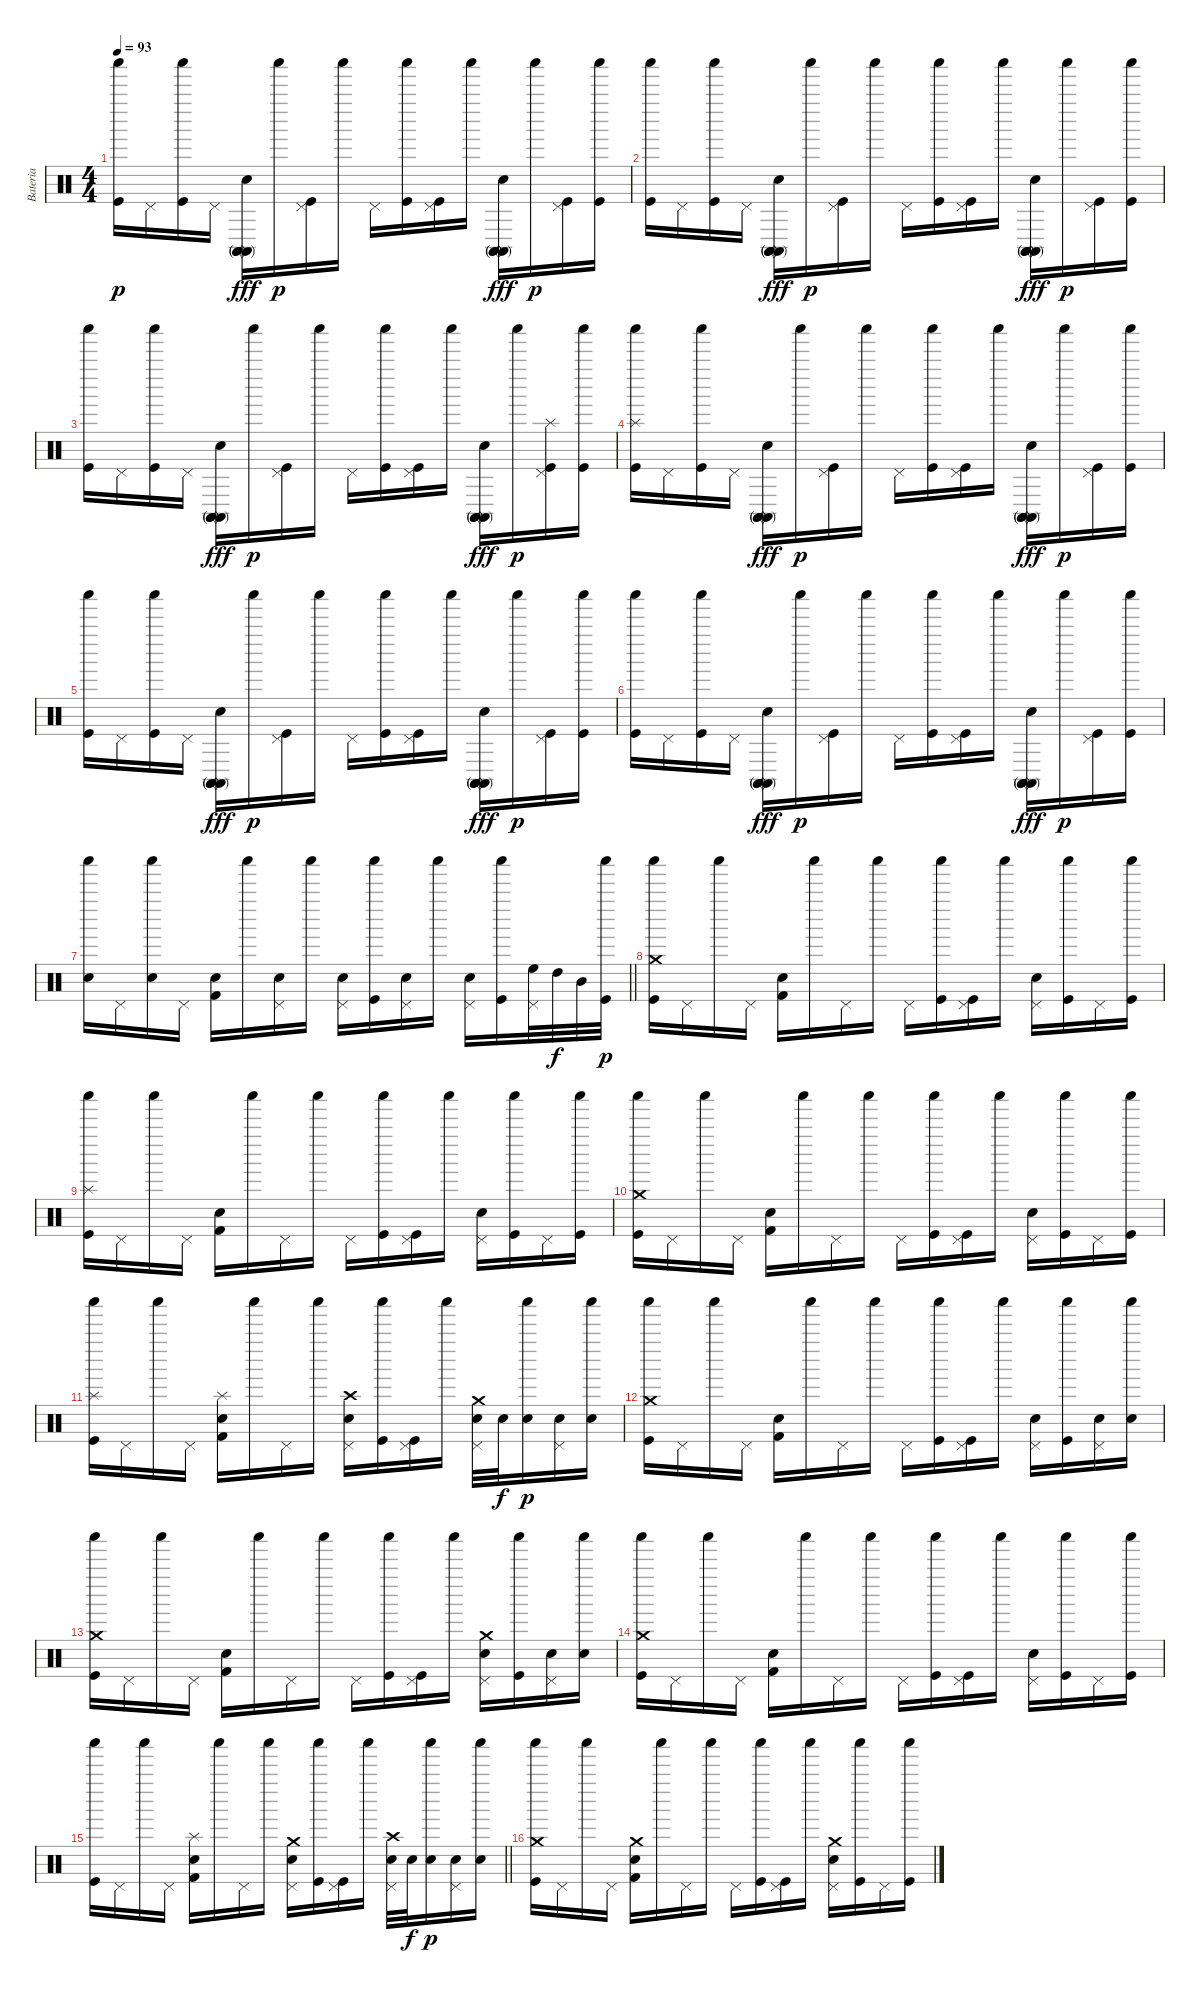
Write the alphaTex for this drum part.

\track ("Bateria" "Bateria") {instrument percussion}
\staff {score}
\articulation defaults
\ts (4 4)
\tempo 93
\clef neutral
\ks c
("Kick (hit)" "Shaker (hit)").16{dy p volume 13} "Pedal Hi-Hat (hit)".16 ("Kick (hit)" "Shaker (hit)").16 "Pedal Hi-Hat (hit)".16 ("Electric Snare (hit)" "Conga high (mute)" "Conga high (mute)" "Conga high (mute)").16{dy fff} "Shaker (hit)".16{dy p} ("Kick (hit)" "Pedal Hi-Hat (hit)").16 "Shaker (hit)".16 "Pedal Hi-Hat (hit)".16 ("Kick (hit)" "Shaker (hit)").16 ("Kick (hit)" "Pedal Hi-Hat (hit)").16 "Shaker (hit)".16 ("Electric Snare (hit)" "Conga high (mute)" "Conga high (mute)" "Conga high (mute)").16{dy fff} "Shaker (hit)".16{dy p} ("Kick (hit)" "Pedal Hi-Hat (hit)").16 ("Kick (hit)" "Shaker (hit)").16 |
("Kick (hit)" "Shaker (hit)").16{volume 13} "Pedal Hi-Hat (hit)".16 ("Kick (hit)" "Shaker (hit)").16 "Pedal Hi-Hat (hit)".16 ("Electric Snare (hit)" "Conga high (mute)" "Conga high (mute)" "Conga high (mute)").16{dy fff} "Shaker (hit)".16{dy p} ("Kick (hit)" "Pedal Hi-Hat (hit)").16 "Shaker (hit)".16 "Pedal Hi-Hat (hit)".16 ("Kick (hit)" "Shaker (hit)").16 ("Kick (hit)" "Pedal Hi-Hat (hit)").16 "Shaker (hit)".16 ("Electric Snare (hit)" "Conga high (mute)" "Conga high (mute)" "Conga high (mute)").16{dy fff} "Shaker (hit)".16{dy p} ("Kick (hit)" "Pedal Hi-Hat (hit)").16 ("Kick (hit)" "Shaker (hit)").16 |
("Kick (hit)" "Shaker (hit)").16{volume 13} "Pedal Hi-Hat (hit)".16 ("Kick (hit)" "Shaker (hit)").16 "Pedal Hi-Hat (hit)".16 ("Electric Snare (hit)" "Conga high (mute)" "Conga high (mute)" "Conga high (mute)").16{dy fff} "Shaker (hit)".16{dy p} ("Kick (hit)" "Pedal Hi-Hat (hit)").16 "Shaker (hit)".16 "Pedal Hi-Hat (hit)".16 ("Kick (hit)" "Shaker (hit)").16 ("Kick (hit)" "Pedal Hi-Hat (hit)").16 "Shaker (hit)".16 ("Electric Snare (hit)" "Conga high (mute)" "Conga high (mute)" "Conga high (mute)").16{dy fff} "Shaker (hit)".16{dy p} ("Kick (hit)" "Pedal Hi-Hat (hit)" "Splash (hit)").16 ("Kick (hit)" "Shaker (hit)").16 |
("Kick (hit)" "Shaker (hit)" "Splash (hit)").16{volume 13} "Pedal Hi-Hat (hit)".16 ("Kick (hit)" "Shaker (hit)").16 "Pedal Hi-Hat (hit)".16 ("Electric Snare (hit)" "Conga high (mute)" "Conga high (mute)" "Conga high (mute)").16{dy fff} "Shaker (hit)".16{dy p} ("Kick (hit)" "Pedal Hi-Hat (hit)").16 "Shaker (hit)".16 "Pedal Hi-Hat (hit)".16 ("Kick (hit)" "Shaker (hit)").16 ("Kick (hit)" "Pedal Hi-Hat (hit)").16 "Shaker (hit)".16 ("Electric Snare (hit)" "Conga high (mute)" "Conga high (mute)" "Conga high (mute)").16{dy fff} "Shaker (hit)".16{dy p} ("Kick (hit)" "Pedal Hi-Hat (hit)").16 ("Kick (hit)" "Shaker (hit)").16 |
("Kick (hit)" "Shaker (hit)").16{volume 13} "Pedal Hi-Hat (hit)".16 ("Kick (hit)" "Shaker (hit)").16 "Pedal Hi-Hat (hit)".16 ("Electric Snare (hit)" "Conga high (mute)" "Conga high (mute)" "Conga high (mute)").16{dy fff} "Shaker (hit)".16{dy p} ("Kick (hit)" "Pedal Hi-Hat (hit)").16 "Shaker (hit)".16 "Pedal Hi-Hat (hit)".16 ("Kick (hit)" "Shaker (hit)").16 ("Kick (hit)" "Pedal Hi-Hat (hit)").16 "Shaker (hit)".16 ("Electric Snare (hit)" "Conga high (mute)" "Conga high (mute)" "Conga high (mute)").16{dy fff} "Shaker (hit)".16{dy p} ("Kick (hit)" "Pedal Hi-Hat (hit)").16 ("Kick (hit)" "Shaker (hit)").16 |
("Kick (hit)" "Shaker (hit)").16{volume 13} "Pedal Hi-Hat (hit)".16 ("Kick (hit)" "Shaker (hit)").16 "Pedal Hi-Hat (hit)".16 ("Electric Snare (hit)" "Conga high (mute)" "Conga high (mute)" "Conga high (mute)").16{dy fff} "Shaker (hit)".16{dy p} ("Kick (hit)" "Pedal Hi-Hat (hit)").16 "Shaker (hit)".16 "Pedal Hi-Hat (hit)".16 ("Kick (hit)" "Shaker (hit)").16 ("Kick (hit)" "Pedal Hi-Hat (hit)").16 "Shaker (hit)".16 ("Electric Snare (hit)" "Conga high (mute)" "Conga high (mute)" "Conga high (mute)").16{dy fff} "Shaker (hit)".16{dy p} ("Kick (hit)" "Pedal Hi-Hat (hit)").16 ("Kick (hit)" "Shaker (hit)").16 |
\barLineRight lightlight
("Electric Snare (hit)" "Shaker (hit)").16 "Pedal Hi-Hat (hit)".16 ("Electric Snare (hit)" "Shaker (hit)").16 "Pedal Hi-Hat (hit)".16 ("Electric Snare (hit)" "Kick (hit) 2").16 "Shaker (hit)".16 ("Electric Snare (hit)" "Pedal Hi-Hat (hit)").16 "Shaker (hit)".16 ("Electric Snare (hit)" "Pedal Hi-Hat (hit)").16 ("Kick (hit)" "Shaker (hit)").16 ("Electric Snare (hit)" "Pedal Hi-Hat (hit)").16 "Shaker (hit)".16 ("Electric Snare (hit)" "Pedal Hi-Hat (hit)").16 ("Kick (hit)" "Shaker (hit)").16 ("High Floor Tom (hit)" "Pedal Hi-Hat (hit)").32 "High Tom (hit)".32{dy f} "Mid Tom (hit)".32 ("Kick (hit)" "Shaker (hit)").32{dy p} |
("Kick (hit)" "Shaker (hit)" "Crash medium (hit)").16 "Pedal Hi-Hat (hit)".16 "Shaker (hit)".16 "Pedal Hi-Hat (hit)".16 ("Electric Snare (hit)" "Kick (hit) 2").16 "Shaker (hit)".16 "Pedal Hi-Hat (hit)".16 "Shaker (hit)".16 "Pedal Hi-Hat (hit)".16 ("Kick (hit)" "Shaker (hit)").16 ("Kick (hit)" "Pedal Hi-Hat (hit)").16 "Shaker (hit)".16 ("Electric Snare (hit)" "Pedal Hi-Hat (hit)").16 ("Kick (hit)" "Shaker (hit)").16 "Pedal Hi-Hat (hit)".16 ("Kick (hit)" "Shaker (hit)").16 |
("Kick (hit)" "Shaker (hit)" "Splash (hit)").16 "Pedal Hi-Hat (hit)".16 "Shaker (hit)".16 "Pedal Hi-Hat (hit)".16 ("Electric Snare (hit)" "Kick (hit) 2").16 "Shaker (hit)".16 "Pedal Hi-Hat (hit)".16 "Shaker (hit)".16 "Pedal Hi-Hat (hit)".16 ("Kick (hit)" "Shaker (hit)").16 ("Kick (hit)" "Pedal Hi-Hat (hit)").16 "Shaker (hit)".16 ("Electric Snare (hit)" "Pedal Hi-Hat (hit)").16 ("Kick (hit)" "Shaker (hit)").16 "Pedal Hi-Hat (hit)".16 ("Kick (hit)" "Shaker (hit)").16 |
("Kick (hit)" "Shaker (hit)" "Crash medium (hit)").16 "Pedal Hi-Hat (hit)".16 "Shaker (hit)".16 "Pedal Hi-Hat (hit)".16 ("Electric Snare (hit)" "Kick (hit) 2").16 "Shaker (hit)".16 "Pedal Hi-Hat (hit)".16 "Shaker (hit)".16 "Pedal Hi-Hat (hit)".16 ("Kick (hit)" "Shaker (hit)").16 ("Kick (hit)" "Pedal Hi-Hat (hit)").16 "Shaker (hit)".16 ("Electric Snare (hit)" "Pedal Hi-Hat (hit)").16 ("Kick (hit)" "Shaker (hit)").16 "Pedal Hi-Hat (hit)".16 ("Kick (hit)" "Shaker (hit)").16 |
("Kick (hit)" "Shaker (hit)" "Splash (hit)").16 "Pedal Hi-Hat (hit)".16 "Shaker (hit)".16 "Pedal Hi-Hat (hit)".16 ("Electric Snare (hit)" "Kick (hit) 2" "Splash (hit)").16 "Shaker (hit)".16 "Pedal Hi-Hat (hit)".16 "Shaker (hit)".16 ("Electric Snare (hit)" "Pedal Hi-Hat (hit)" "Crash high (hit)").16 ("Kick (hit)" "Shaker (hit)").16 ("Kick (hit)" "Pedal Hi-Hat (hit)").16 "Shaker (hit)".16 ("Electric Snare (hit)" "Pedal Hi-Hat (hit)" "Crash medium (hit)").32 "Electric Snare (hit)".32{dy f} ("Electric Snare (hit)" "Shaker (hit)").16{dy p} ("Electric Snare (hit)" "Pedal Hi-Hat (hit)").16 ("Electric Snare (hit)" "Shaker (hit)").16 |
("Kick (hit)" "Shaker (hit)" "Crash medium (hit)").16 "Pedal Hi-Hat (hit)".16 "Shaker (hit)".16 "Pedal Hi-Hat (hit)".16 ("Electric Snare (hit)" "Kick (hit) 2").16 "Shaker (hit)".16 "Pedal Hi-Hat (hit)".16 "Shaker (hit)".16 "Pedal Hi-Hat (hit)".16 ("Kick (hit)" "Shaker (hit)").16 ("Kick (hit)" "Pedal Hi-Hat (hit)").16 "Shaker (hit)".16 ("Electric Snare (hit)" "Pedal Hi-Hat (hit)").16 ("Kick (hit)" "Shaker (hit)").16 ("Electric Snare (hit)" "Pedal Hi-Hat (hit)").16 ("Electric Snare (hit)" "Shaker (hit)").16 |
("Kick (hit)" "Shaker (hit)" "Crash medium (hit)").16 "Pedal Hi-Hat (hit)".16 "Shaker (hit)".16 "Pedal Hi-Hat (hit)".16 ("Electric Snare (hit)" "Kick (hit) 2").16 "Shaker (hit)".16 "Pedal Hi-Hat (hit)".16 "Shaker (hit)".16 "Pedal Hi-Hat (hit)".16 ("Kick (hit)" "Shaker (hit)").16 ("Kick (hit)" "Pedal Hi-Hat (hit)").16 "Shaker (hit)".16 ("Electric Snare (hit)" "Pedal Hi-Hat (hit)" "Crash medium (hit)").16 ("Kick (hit)" "Shaker (hit)").16 ("Electric Snare (hit)" "Pedal Hi-Hat (hit)").16 ("Electric Snare (hit)" "Shaker (hit)").16 |
("Kick (hit)" "Shaker (hit)" "Crash medium (hit)").16 "Pedal Hi-Hat (hit)".16 "Shaker (hit)".16 "Pedal Hi-Hat (hit)".16 ("Electric Snare (hit)" "Kick (hit) 2").16 "Shaker (hit)".16 "Pedal Hi-Hat (hit)".16 "Shaker (hit)".16 "Pedal Hi-Hat (hit)".16 ("Kick (hit)" "Shaker (hit)").16 ("Kick (hit)" "Pedal Hi-Hat (hit)").16 "Shaker (hit)".16 ("Electric Snare (hit)" "Pedal Hi-Hat (hit)").16 ("Kick (hit)" "Shaker (hit)").16 "Pedal Hi-Hat (hit)".16 ("Kick (hit)" "Shaker (hit)").16 |
\barLineRight lightlight
("Kick (hit)" "Shaker (hit)").16 "Pedal Hi-Hat (hit)".16 "Shaker (hit)".16 "Pedal Hi-Hat (hit)".16 ("Electric Snare (hit)" "Kick (hit) 2" "Splash (hit)").16 "Shaker (hit)".16 "Pedal Hi-Hat (hit)".16 "Shaker (hit)".16 ("Electric Snare (hit)" "Pedal Hi-Hat (hit)" "Crash medium (hit)").16 ("Kick (hit)" "Shaker (hit)").16 ("Kick (hit)" "Pedal Hi-Hat (hit)").16 "Shaker (hit)".16 ("Electric Snare (hit)" "Pedal Hi-Hat (hit)" "Crash high (hit)").32 "Electric Snare (hit)".32{dy f} ("Electric Snare (hit)" "Shaker (hit)").16{dy p} ("Electric Snare (hit)" "Pedal Hi-Hat (hit)").16 ("Electric Snare (hit)" "Shaker (hit)").16 |
("Kick (hit)" "Shaker (hit)" "Crash medium (hit)").16 "Pedal Hi-Hat (hit)".16 "Shaker (hit)".16 "Pedal Hi-Hat (hit)".16 ("Electric Snare (hit)" "Kick (hit) 2" "Crash medium (hit)").16 "Shaker (hit)".16 "Pedal Hi-Hat (hit)".16 "Shaker (hit)".16 "Pedal Hi-Hat (hit)".16 ("Kick (hit)" "Shaker (hit)").16 ("Kick (hit)" "Pedal Hi-Hat (hit)").16 "Shaker (hit)".16 ("Electric Snare (hit)" "Pedal Hi-Hat (hit)" "Crash medium (hit)").16 ("Kick (hit)" "Shaker (hit)").16 "Pedal Hi-Hat (hit)".16 ("Kick (hit)" "Shaker (hit)").16
